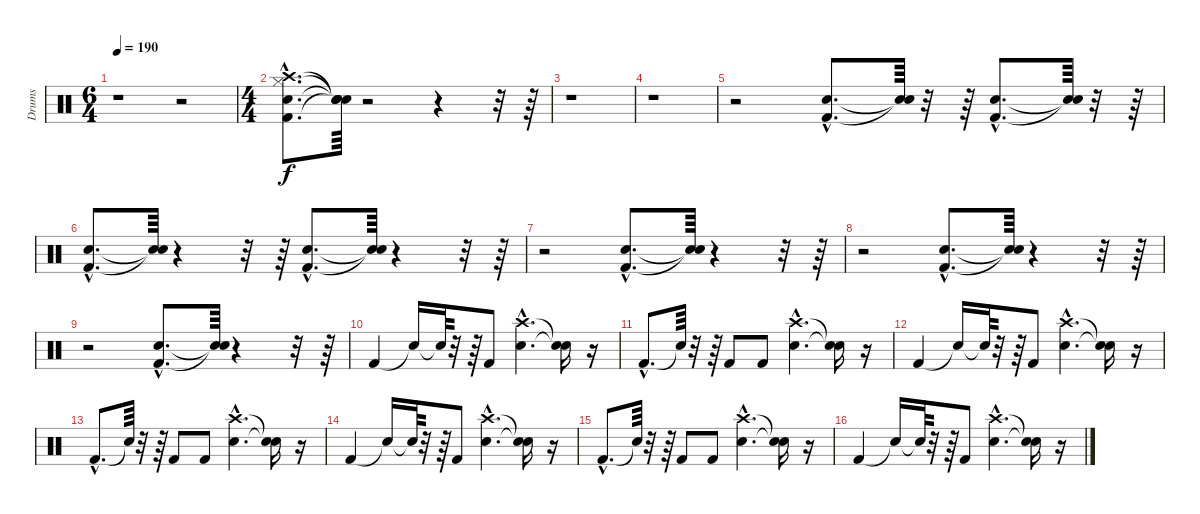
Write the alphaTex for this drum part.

\track ("Drums" "Drums") {instrument percussion}
\staff {score}
\articulation defaults
\ts (6 4)
\tempo 190
\clef neutral
\ks c
r.1{dy f} r.2 |
\ts (4 4)
("Kick (hit) 2"{hac} "Snare (hit) 2"{hac} "Hi-Hat (closed)"{hac} "Crash high (hit)"{hac}).8{d} ("Snare (hit)"{t} "Snare (hit)"{t} "Snare (hit)"{t} "Snare (hit)"{t}).64 r.2 r.4 r.32 r.64 |
r.1 |
r.1 |
r.2 ("Kick (hit) 2"{hac} "Snare (hit) 2"{hac}).8{d} ("Snare (hit)"{t} "Snare (hit)"{t}).64 r.32 r.64 ("Kick (hit) 2"{hac} "Snare (hit) 2"{hac}).8{d} ("Snare (hit)"{t} "Snare (hit)"{t}).64 r.32 r.64 |
("Kick (hit) 2"{hac} "Snare (hit) 2"{hac}).8{d} ("Snare (hit)"{t} "Snare (hit)"{t}).64 r.4 r.32 r.64 ("Kick (hit) 2"{hac} "Snare (hit) 2"{hac}).8{d} ("Snare (hit)"{t} "Snare (hit)"{t}).64 r.4 r.32 r.64 |
r.2 ("Kick (hit) 2"{hac} "Snare (hit) 2"{hac}).8{d} ("Snare (hit)"{t} "Snare (hit)"{t}).64 r.4 r.32 r.64 |
r.2 ("Kick (hit) 2"{hac} "Snare (hit) 2"{hac}).8{d} ("Snare (hit)"{t} "Snare (hit)"{t}).64 r.4 r.32 r.64 |
r.2 ("Kick (hit) 2"{hac} "Snare (hit) 2"{hac}).8{d} ("Snare (hit)"{t} "Snare (hit)"{t}).64 r.4 r.32 r.64 |
"Kick (hit) 2".4 "Snare (hit)"{t}.16 "Snare (hit)"{t}.64 r.32 r.64 "Kick (hit) 2".8 ("Snare (hit) 2"{hac} "Crash high (hit)"{hac}).4{d} ("Snare (hit)"{t} "Snare (hit)"{t}).16 r.16 |
"Kick (hit) 2"{hac}.8{d} "Snare (hit)"{t}.64 r.32 r.64 "Kick (hit) 2".8 "Kick (hit) 2".8 ("Snare (hit) 2"{hac} "Crash high (hit)"{hac}).4{d} ("Snare (hit)"{t} "Snare (hit)"{t}).16 r.16 |
"Kick (hit) 2".4 "Snare (hit)"{t}.16 "Snare (hit)"{t}.64 r.32 r.64 "Kick (hit) 2".8 ("Snare (hit) 2"{hac} "Crash high (hit)"{hac}).4{d} ("Snare (hit)"{t} "Snare (hit)"{t}).16 r.16 |
"Kick (hit) 2"{hac}.8{d} "Snare (hit)"{t}.64 r.32 r.64 "Kick (hit) 2".8 "Kick (hit) 2".8 ("Snare (hit) 2"{hac} "Crash high (hit)"{hac}).4{d} ("Snare (hit)"{t} "Snare (hit)"{t}).16 r.16 |
"Kick (hit) 2".4 "Snare (hit)"{t}.16 "Snare (hit)"{t}.64 r.32 r.64 "Kick (hit) 2".8 ("Snare (hit) 2"{hac} "Crash high (hit)"{hac}).4{d} ("Snare (hit)"{t} "Snare (hit)"{t}).16 r.16 |
"Kick (hit) 2"{hac}.8{d} "Snare (hit)"{t}.64 r.32 r.64 "Kick (hit) 2".8 "Kick (hit) 2".8 ("Snare (hit) 2"{hac} "Crash high (hit)"{hac}).4{d} ("Snare (hit)"{t} "Snare (hit)"{t}).16 r.16 |
"Kick (hit) 2".4 "Snare (hit)"{t}.16 "Snare (hit)"{t}.64 r.32 r.64 "Kick (hit) 2".8 ("Snare (hit) 2"{hac} "Crash high (hit)"{hac}).4{d} ("Snare (hit)"{t} "Snare (hit)"{t}).16 r.16
